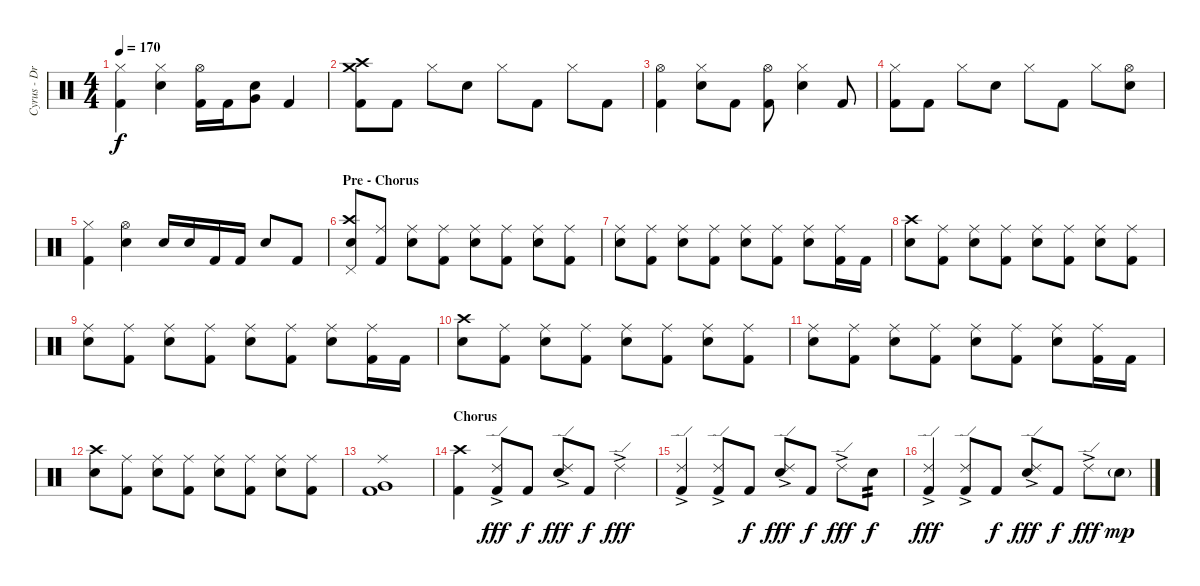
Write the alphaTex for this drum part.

\track ("Cyrus - Drums" "Cyrus - Dr") {instrument percussion}
\staff {score}
\articulation defaults
\ts (4 4)
\tempo 170
\clef neutral
\ks c
("Hi-Hat (closed)" "Kick (hit) 2").4{dy f} ("Hi-Hat (closed)" "Electric Snare (hit)").4 ("Hi-Hat (open)" "Kick (hit) 2").16 "Kick (hit) 2".16 ("Very Low Tom (hit)" "Electric Snare (hit)").8 "Kick (hit) 2".4 |
("Crash high (hit)" "Crash medium (hit)" "Kick (hit) 2").8 "Kick (hit) 2".8 "Hi-Hat (closed)".8 "Electric Snare (hit)".8 "Hi-Hat (closed)".8 "Kick (hit) 2".8 "Hi-Hat (closed)".8 "Kick (hit) 2".8 |
("Hi-Hat (open)" "Kick (hit) 2").4 ("Hi-Hat (closed)" "Electric Snare (hit)").8 "Kick (hit) 2".8 ("Hi-Hat (open)" "Kick (hit) 2").8 ("Hi-Hat (closed)" "Electric Snare (hit)").4 "Kick (hit) 2".8 |
("Hi-Hat (closed)" "Kick (hit) 2").8 "Kick (hit) 2".8 "Hi-Hat (closed)".8 "Electric Snare (hit)".8 "Hi-Hat (closed)".8 "Kick (hit) 2".8 "Hi-Hat (closed)".8 ("Hi-Hat (open)" "Electric Snare (hit)").8 |
("Hi-Hat (closed)" "Kick (hit) 2").4 ("Hi-Hat (open)" "Electric Snare (hit)").4 "Electric Snare (hit)".16 "Electric Snare (hit)".16 "Kick (hit) 2".16 "Kick (hit) 2".16 "Electric Snare (hit)".8 "Kick (hit) 2".8 |
\section ("" "Pre - Chorus")
("Crash high (hit)" "Pedal Hi-Hat (hit)" "Electric Snare (hit)").8 ("Ride (middle)" "Kick (hit) 2").8 ("Ride (middle)" "Electric Snare (hit)").8 ("Ride (middle)" "Kick (hit) 2").8 ("Ride (middle)" "Electric Snare (hit)").8 ("Ride (middle)" "Kick (hit) 2").8 ("Ride (middle)" "Electric Snare (hit)").8 ("Ride (middle)" "Kick (hit) 2").8 |
("Ride (middle)" "Electric Snare (hit)").8 ("Ride (middle)" "Kick (hit) 2").8 ("Ride (middle)" "Electric Snare (hit)").8 ("Ride (middle)" "Kick (hit) 2").8 ("Ride (middle)" "Electric Snare (hit)").8 ("Ride (middle)" "Kick (hit) 2").8 ("Ride (middle)" "Electric Snare (hit)").8 ("Ride (middle)" "Kick (hit) 2").16 "Kick (hit) 2".16 |
("Crash high (hit)" "Electric Snare (hit)").8 ("Ride (middle)" "Kick (hit) 2").8 ("Ride (middle)" "Electric Snare (hit)").8 ("Ride (middle)" "Kick (hit) 2").8 ("Ride (middle)" "Electric Snare (hit)").8 ("Ride (middle)" "Kick (hit) 2").8 ("Ride (middle)" "Electric Snare (hit)").8 ("Ride (middle)" "Kick (hit) 2").8 |
("Ride (middle)" "Electric Snare (hit)").8 ("Ride (middle)" "Kick (hit) 2").8 ("Ride (middle)" "Electric Snare (hit)").8 ("Ride (middle)" "Kick (hit) 2").8 ("Ride (middle)" "Electric Snare (hit)").8 ("Ride (middle)" "Kick (hit) 2").8 ("Ride (middle)" "Electric Snare (hit)").8 ("Ride (middle)" "Kick (hit) 2").16 "Kick (hit) 2".16 |
("Crash high (hit)" "Electric Snare (hit)").8 ("Ride (middle)" "Kick (hit) 2").8 ("Ride (middle)" "Electric Snare (hit)").8 ("Ride (middle)" "Kick (hit) 2").8 ("Ride (middle)" "Electric Snare (hit)").8 ("Ride (middle)" "Kick (hit) 2").8 ("Ride (middle)" "Electric Snare (hit)").8 ("Ride (middle)" "Kick (hit) 2").8 |
("Ride (middle)" "Electric Snare (hit)").8 ("Ride (middle)" "Kick (hit) 2").8 ("Ride (middle)" "Electric Snare (hit)").8 ("Ride (middle)" "Kick (hit) 2").8 ("Ride (middle)" "Electric Snare (hit)").8 ("Ride (middle)" "Kick (hit) 2").8 ("Ride (middle)" "Electric Snare (hit)").8 ("Ride (middle)" "Kick (hit) 2").16 "Kick (hit) 2".16 |
("Crash high (hit)" "Electric Snare (hit)").8 ("Ride (middle)" "Kick (hit) 2").8 ("Ride (middle)" "Electric Snare (hit)").8 ("Ride (middle)" "Kick (hit) 2").8 ("Ride (middle)" "Electric Snare (hit)").8 ("Ride (middle)" "Kick (hit) 2").8 ("Ride (middle)" "Electric Snare (hit)").8 ("Ride (middle)" "Kick (hit) 2").8 |
("Ride (middle)" "Very Low Tom (hit)" "Kick (hit) 2").1 |
\section ("" "Chorus")
("Crash high (hit)" "Kick (hit) 2").4 ("Ride (edge) 2"{ac} "Kick (hit) 2").8{dy fff} "Kick (hit) 2".8{dy f} ("Ride (edge) 2"{ac} "Electric Snare (hit)").8{dy fff} "Kick (hit) 2".8{dy f} "Ride (edge) 2"{ac}.4{dy fff} |
("Ride (edge) 2"{ac} "Kick (hit) 2").4 ("Ride (edge) 2"{ac} "Kick (hit) 2").8 "Kick (hit) 2".8{dy f} ("Ride (edge) 2"{ac} "Electric Snare (hit)").8{dy fff} "Kick (hit) 2".8{dy f} "Ride (edge) 2"{ac}.8{dy fff} "Electric Snare (hit)".8{tp 2 dy f} |
("Ride (edge) 2"{ac} "Kick (hit) 2").4{dy fff} ("Ride (edge) 2"{ac} "Kick (hit) 2").8 "Kick (hit) 2".8{dy f} ("Ride (edge) 2"{ac} "Electric Snare (hit)").8{dy fff} "Kick (hit) 2".8{dy f} "Ride (edge) 2"{ac}.8{dy fff} "Electric Snare (hit)"{g}.8{dy mp}
